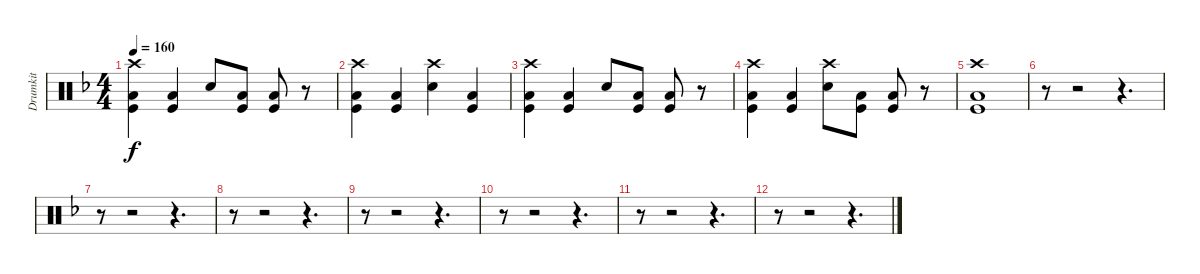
\track ("Drumkit" "Drumkit") {instrument percussion}
\staff {score}
\articulation defaults
\ts (4 4)
\tempo 160
\clef neutral
\ks dminor
("Crash high (hit)" "Low Floor Tom (hit)" "Kick (hit)").4{dy f} ("Low Floor Tom (hit)" "Kick (hit)").4 "Snare (hit) 2".8 ("Low Floor Tom (hit)" "Kick (hit)").8 ("Low Floor Tom (hit)" "Kick (hit)").8 r.8 |
("Crash high (hit)" "Low Floor Tom (hit)" "Kick (hit)").4 ("Low Floor Tom (hit)" "Kick (hit)").4 ("Crash high (hit)" "Snare (hit) 2").4 ("Low Floor Tom (hit)" "Kick (hit)").4 |
("Crash high (hit)" "Low Floor Tom (hit)" "Kick (hit)").4 ("Low Floor Tom (hit)" "Kick (hit)").4 "Snare (hit) 2".8 ("Low Floor Tom (hit)" "Kick (hit)").8 ("Low Floor Tom (hit)" "Kick (hit)").8 r.8 |
("Crash high (hit)" "Low Floor Tom (hit)" "Kick (hit)").4 ("Low Floor Tom (hit)" "Kick (hit)").4 ("Crash high (hit)" "Snare (hit) 2").8 ("Low Tom (hit)" "Kick (hit)").8 ("Low Floor Tom (hit)" "Kick (hit)").8 r.8 |
("Crash high (hit)" "Low Floor Tom (hit)" "Kick (hit)").1 |
r.8 r.2 r.4{d} |
r.8 r.2 r.4{d} |
r.8 r.2 r.4{d} |
r.8 r.2 r.4{d} |
r.8 r.2 r.4{d} |
r.8 r.2 r.4{d} |
r.8 r.2 r.4{d}
